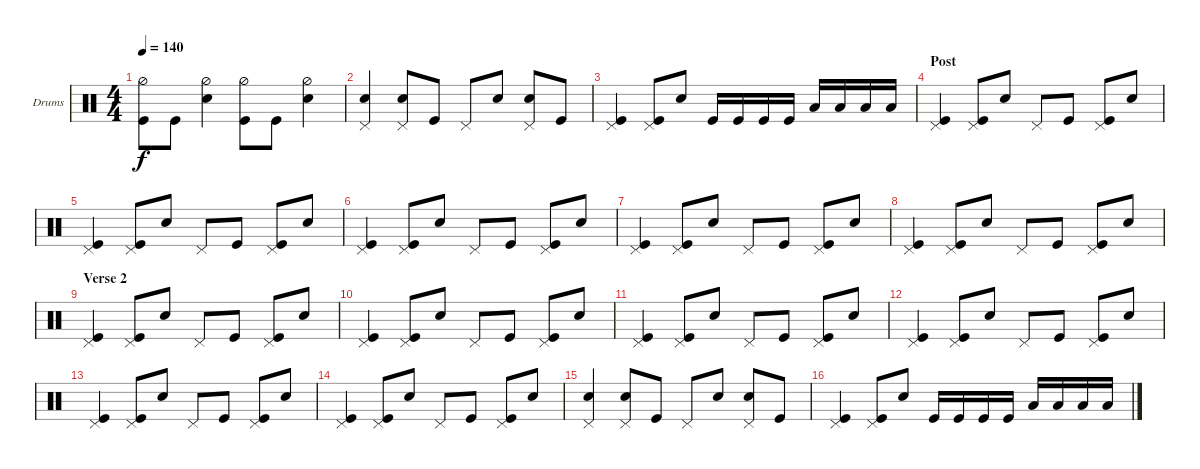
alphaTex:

\defaultSystemsLayout 4
\bracketExtendMode groupsimilarinstruments
\firstSystemTrackNameOrientation horizontal
\otherSystemsTrackNameOrientation horizontal
\track ("Drumkit" "Drums") {instrument percussion}
\staff {score}
\articulation defaults
\ts (4 4)
\tempo 140
\clef neutral
\ks c
("Kick (hit)" "Hi-Hat (half)").8{dy f} "Kick (hit)".8 ("Snare (hit) 2" "Hi-Hat (half)").4 ("Kick (hit)" "Hi-Hat (half)").8 "Kick (hit)".8 ("Snare (hit) 2" "Hi-Hat (half)").4 |
("Pedal Hi-Hat (hit)" "Snare (hit) 2").4 ("Pedal Hi-Hat (hit)" "Snare (hit) 2").8 "Kick (hit)".8 "Pedal Hi-Hat (hit)".8 "Snare (hit) 2".8 ("Pedal Hi-Hat (hit)" "Snare (hit) 2").8 "Kick (hit)".8 |
("Kick (hit)" "Pedal Hi-Hat (hit)").4 ("Kick (hit)" "Pedal Hi-Hat (hit)").8 "Snare (hit) 2".8 "Kick (hit)".16 "Kick (hit)".16 "Kick (hit)".16 "Kick (hit)".16 "Low Tom (hit)".16 "Low Tom (hit)".16 "Low Tom (hit)".16 "Low Tom (hit)".16 |
\section ("" "Post")
("Kick (hit)" "Pedal Hi-Hat (hit)").4 ("Kick (hit)" "Pedal Hi-Hat (hit)").8 "Snare (hit) 2".8 "Pedal Hi-Hat (hit)".8 "Kick (hit)".8 ("Kick (hit)" "Pedal Hi-Hat (hit)").8 "Snare (hit) 2".8 |
("Kick (hit)" "Pedal Hi-Hat (hit)").4 ("Kick (hit)" "Pedal Hi-Hat (hit)").8 "Snare (hit) 2".8 "Pedal Hi-Hat (hit)".8 "Kick (hit)".8 ("Kick (hit)" "Pedal Hi-Hat (hit)").8 "Snare (hit) 2".8 |
("Kick (hit)" "Pedal Hi-Hat (hit)").4 ("Kick (hit)" "Pedal Hi-Hat (hit)").8 "Snare (hit) 2".8 "Pedal Hi-Hat (hit)".8 "Kick (hit)".8 ("Kick (hit)" "Pedal Hi-Hat (hit)").8 "Snare (hit) 2".8 |
("Kick (hit)" "Pedal Hi-Hat (hit)").4 ("Kick (hit)" "Pedal Hi-Hat (hit)").8 "Snare (hit) 2".8 "Pedal Hi-Hat (hit)".8 "Kick (hit)".8 ("Kick (hit)" "Pedal Hi-Hat (hit)").8 "Snare (hit) 2".8 |
("Kick (hit)" "Pedal Hi-Hat (hit)").4 ("Kick (hit)" "Pedal Hi-Hat (hit)").8 "Snare (hit) 2".8 "Pedal Hi-Hat (hit)".8 "Kick (hit)".8 ("Kick (hit)" "Pedal Hi-Hat (hit)").8 "Snare (hit) 2".8 |
\section ("" "Verse 2")
("Kick (hit)" "Pedal Hi-Hat (hit)").4 ("Kick (hit)" "Pedal Hi-Hat (hit)").8 "Snare (hit) 2".8 "Pedal Hi-Hat (hit)".8 "Kick (hit)".8 ("Kick (hit)" "Pedal Hi-Hat (hit)").8 "Snare (hit) 2".8 |
("Kick (hit)" "Pedal Hi-Hat (hit)").4 ("Kick (hit)" "Pedal Hi-Hat (hit)").8 "Snare (hit) 2".8 "Pedal Hi-Hat (hit)".8 "Kick (hit)".8 ("Kick (hit)" "Pedal Hi-Hat (hit)").8 "Snare (hit) 2".8 |
("Kick (hit)" "Pedal Hi-Hat (hit)").4 ("Kick (hit)" "Pedal Hi-Hat (hit)").8 "Snare (hit) 2".8 "Pedal Hi-Hat (hit)".8 "Kick (hit)".8 ("Kick (hit)" "Pedal Hi-Hat (hit)").8 "Snare (hit) 2".8 |
("Kick (hit)" "Pedal Hi-Hat (hit)").4 ("Kick (hit)" "Pedal Hi-Hat (hit)").8 "Snare (hit) 2".8 "Pedal Hi-Hat (hit)".8 "Kick (hit)".8 ("Kick (hit)" "Pedal Hi-Hat (hit)").8 "Snare (hit) 2".8 |
("Kick (hit)" "Pedal Hi-Hat (hit)").4 ("Kick (hit)" "Pedal Hi-Hat (hit)").8 "Snare (hit) 2".8 "Pedal Hi-Hat (hit)".8 "Kick (hit)".8 ("Kick (hit)" "Pedal Hi-Hat (hit)").8 "Snare (hit) 2".8 |
("Kick (hit)" "Pedal Hi-Hat (hit)").4 ("Kick (hit)" "Pedal Hi-Hat (hit)").8 "Snare (hit) 2".8 "Pedal Hi-Hat (hit)".8 "Kick (hit)".8 ("Kick (hit)" "Pedal Hi-Hat (hit)").8 "Snare (hit) 2".8 |
("Pedal Hi-Hat (hit)" "Snare (hit) 2").4 ("Pedal Hi-Hat (hit)" "Snare (hit) 2").8 "Kick (hit)".8 "Pedal Hi-Hat (hit)".8 "Snare (hit) 2".8 ("Pedal Hi-Hat (hit)" "Snare (hit) 2").8 "Kick (hit)".8 |
("Kick (hit)" "Pedal Hi-Hat (hit)").4 ("Kick (hit)" "Pedal Hi-Hat (hit)").8 "Snare (hit) 2".8 "Kick (hit)".16 "Kick (hit)".16 "Kick (hit)".16 "Kick (hit)".16 "Low Tom (hit)".16 "Low Tom (hit)".16 "Low Tom (hit)".16 "Low Tom (hit)".16
